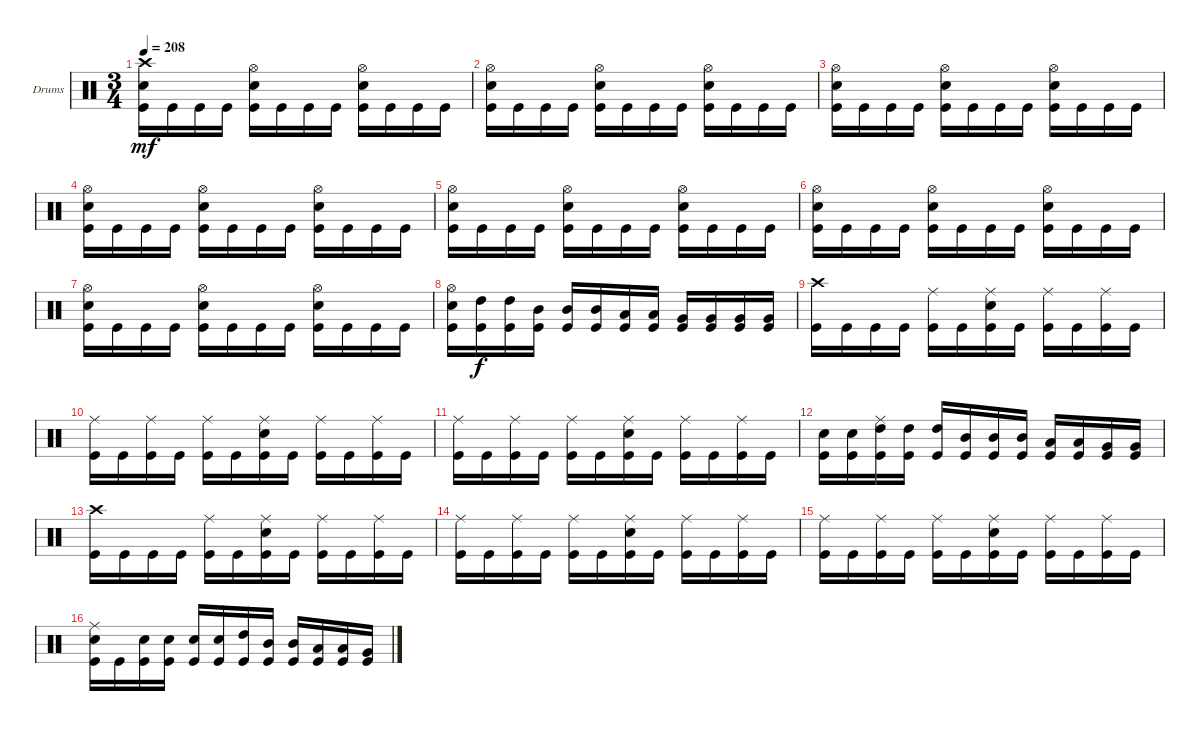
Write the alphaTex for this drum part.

\bracketExtendMode groupsimilarinstruments
\firstSystemTrackNameOrientation horizontal
\otherSystemsTrackNameOrientation horizontal
\track ("Drumkit" "Drums") {instrument percussion}
\staff {score}
\articulation defaults
\ts (3 4)
\tempo 208
\clef neutral
\ks c
("Crash high (hit)" "Snare (hit) 2" "Kick (hit)").16{dy mf} "Kick (hit)".16 "Kick (hit)".16 "Kick (hit)".16 ("Hi-Hat (open)" "Snare (hit) 2" "Kick (hit)").16 "Kick (hit)".16 "Kick (hit)".16 "Kick (hit)".16 ("Hi-Hat (open)" "Snare (hit) 2" "Kick (hit)").16 "Kick (hit)".16 "Kick (hit)".16 "Kick (hit)".16 |
("Hi-Hat (open)" "Snare (hit) 2" "Kick (hit)").16 "Kick (hit)".16 "Kick (hit)".16 "Kick (hit)".16 ("Hi-Hat (open)" "Snare (hit) 2" "Kick (hit)").16 "Kick (hit)".16 "Kick (hit)".16 "Kick (hit)".16 ("Hi-Hat (open)" "Snare (hit) 2" "Kick (hit)").16 "Kick (hit)".16 "Kick (hit)".16 "Kick (hit)".16 |
("Hi-Hat (open)" "Snare (hit) 2" "Kick (hit)").16 "Kick (hit)".16 "Kick (hit)".16 "Kick (hit)".16 ("Hi-Hat (open)" "Snare (hit) 2" "Kick (hit)").16 "Kick (hit)".16 "Kick (hit)".16 "Kick (hit)".16 ("Hi-Hat (open)" "Snare (hit) 2" "Kick (hit)").16 "Kick (hit)".16 "Kick (hit)".16 "Kick (hit)".16 |
("Hi-Hat (open)" "Snare (hit) 2" "Kick (hit)").16 "Kick (hit)".16 "Kick (hit)".16 "Kick (hit)".16 ("Hi-Hat (open)" "Snare (hit) 2" "Kick (hit)").16 "Kick (hit)".16 "Kick (hit)".16 "Kick (hit)".16 ("Hi-Hat (open)" "Snare (hit) 2" "Kick (hit)").16 "Kick (hit)".16 "Kick (hit)".16 "Kick (hit)".16 |
("Hi-Hat (open)" "Snare (hit) 2" "Kick (hit)").16 "Kick (hit)".16 "Kick (hit)".16 "Kick (hit)".16 ("Hi-Hat (open)" "Snare (hit) 2" "Kick (hit)").16 "Kick (hit)".16 "Kick (hit)".16 "Kick (hit)".16 ("Hi-Hat (open)" "Snare (hit) 2" "Kick (hit)").16 "Kick (hit)".16 "Kick (hit)".16 "Kick (hit)".16 |
("Hi-Hat (open)" "Snare (hit) 2" "Kick (hit)").16 "Kick (hit)".16 "Kick (hit)".16 "Kick (hit)".16 ("Hi-Hat (open)" "Snare (hit) 2" "Kick (hit)").16 "Kick (hit)".16 "Kick (hit)".16 "Kick (hit)".16 ("Hi-Hat (open)" "Snare (hit) 2" "Kick (hit)").16 "Kick (hit)".16 "Kick (hit)".16 "Kick (hit)".16 |
("Hi-Hat (open)" "Snare (hit) 2" "Kick (hit)").16 "Kick (hit)".16 "Kick (hit)".16 "Kick (hit)".16 ("Hi-Hat (open)" "Snare (hit) 2" "Kick (hit)").16 "Kick (hit)".16 "Kick (hit)".16 "Kick (hit)".16 ("Hi-Hat (open)" "Snare (hit) 2" "Kick (hit)").16 "Kick (hit)".16 "Kick (hit)".16 "Kick (hit)".16 |
("Hi-Hat (open)" "Snare (hit) 2" "Kick (hit)").16 ("High Tom (hit)" "Kick (hit)").16{dy f} ("High Tom (hit)" "Kick (hit)").16 ("Mid Tom (hit)" "Kick (hit)").16 ("Mid Tom (hit)" "Kick (hit)").16 ("Mid Tom (hit)" "Kick (hit)").16 ("Low Tom (hit)" "Kick (hit)").16 ("Low Tom (hit)" "Kick (hit)").16 ("Very Low Tom (hit)" "Kick (hit)").16 ("Very Low Tom (hit)" "Kick (hit)").16 ("Very Low Tom (hit)" "Kick (hit)").16 ("Very Low Tom (hit)" "Kick (hit)").16 |
("Crash high (hit)" "Kick (hit)").16 "Kick (hit)".16 "Kick (hit)".16 "Kick (hit)".16 ("Ride (middle)" "Kick (hit)").16 "Kick (hit)".16 ("Ride (middle)" "Snare (hit) 2" "Kick (hit)").16 "Kick (hit)".16 ("Ride (middle)" "Kick (hit)").16 "Kick (hit)".16 ("Ride (middle)" "Kick (hit)").16 "Kick (hit)".16 |
("Ride (middle)" "Kick (hit)").16 "Kick (hit)".16 ("Ride (middle)" "Kick (hit)").16 "Kick (hit)".16 ("Ride (middle)" "Kick (hit)").16 "Kick (hit)".16 ("Ride (middle)" "Snare (hit) 2" "Kick (hit)").16 "Kick (hit)".16 ("Ride (middle)" "Kick (hit)").16 "Kick (hit)".16 ("Ride (middle)" "Kick (hit)").16 "Kick (hit)".16 |
("Ride (middle)" "Kick (hit)").16 "Kick (hit)".16 ("Ride (middle)" "Kick (hit)").16 "Kick (hit)".16 ("Ride (middle)" "Kick (hit)").16 "Kick (hit)".16 ("Ride (middle)" "Snare (hit) 2" "Kick (hit)").16 "Kick (hit)".16 ("Ride (middle)" "Kick (hit)").16 "Kick (hit)".16 ("Ride (middle)" "Kick (hit)").16 "Kick (hit)".16 |
("Snare (hit) 2" "Kick (hit)").16 ("Snare (hit) 2" "Kick (hit)").16 ("Ride (middle)" "High Tom (hit)" "Kick (hit)").16 ("High Tom (hit)" "Kick (hit)").16 ("High Tom (hit)" "Kick (hit)").16 ("Mid Tom (hit)" "Kick (hit)").16 ("Mid Tom (hit)" "Kick (hit)").16 ("Mid Tom (hit)" "Kick (hit)").16 ("Low Tom (hit)" "Kick (hit)").16 ("Low Tom (hit)" "Kick (hit)").16 ("Very Low Tom (hit)" "Kick (hit)").16 ("Very Low Tom (hit)" "Kick (hit)").16 |
("Crash high (hit)" "Kick (hit)").16 "Kick (hit)".16 "Kick (hit)".16 "Kick (hit)".16 ("Ride (middle)" "Kick (hit)").16 "Kick (hit)".16 ("Ride (middle)" "Snare (hit) 2" "Kick (hit)").16 "Kick (hit)".16 ("Ride (middle)" "Kick (hit)").16 "Kick (hit)".16 ("Ride (middle)" "Kick (hit)").16 "Kick (hit)".16 |
("Ride (middle)" "Kick (hit)").16 "Kick (hit)".16 ("Ride (middle)" "Kick (hit)").16 "Kick (hit)".16 ("Ride (middle)" "Kick (hit)").16 "Kick (hit)".16 ("Ride (middle)" "Snare (hit) 2" "Kick (hit)").16 "Kick (hit)".16 ("Ride (middle)" "Kick (hit)").16 "Kick (hit)".16 ("Ride (middle)" "Kick (hit)").16 "Kick (hit)".16 |
("Ride (middle)" "Kick (hit)").16 "Kick (hit)".16 ("Ride (middle)" "Kick (hit)").16 "Kick (hit)".16 ("Ride (middle)" "Kick (hit)").16 "Kick (hit)".16 ("Ride (middle)" "Snare (hit) 2" "Kick (hit)").16 "Kick (hit)".16 ("Ride (middle)" "Kick (hit)").16 "Kick (hit)".16 ("Ride (middle)" "Kick (hit)").16 "Kick (hit)".16 |
("Ride (middle)" "Snare (hit) 2" "Kick (hit)").16 "Kick (hit)".16 ("Snare (hit) 2" "Kick (hit)").16 ("Snare (hit) 2" "Kick (hit)").16 ("Snare (hit) 2" "Kick (hit)").16 ("Snare (hit) 2" "Kick (hit)").16 ("High Tom (hit)" "Kick (hit)").16 ("Mid Tom (hit)" "Kick (hit)").16 ("Mid Tom (hit)" "Kick (hit)").16 ("Low Tom (hit)" "Kick (hit)").16 ("Low Tom (hit)" "Kick (hit)").16 ("Very Low Tom (hit)" "Kick (hit)").16
